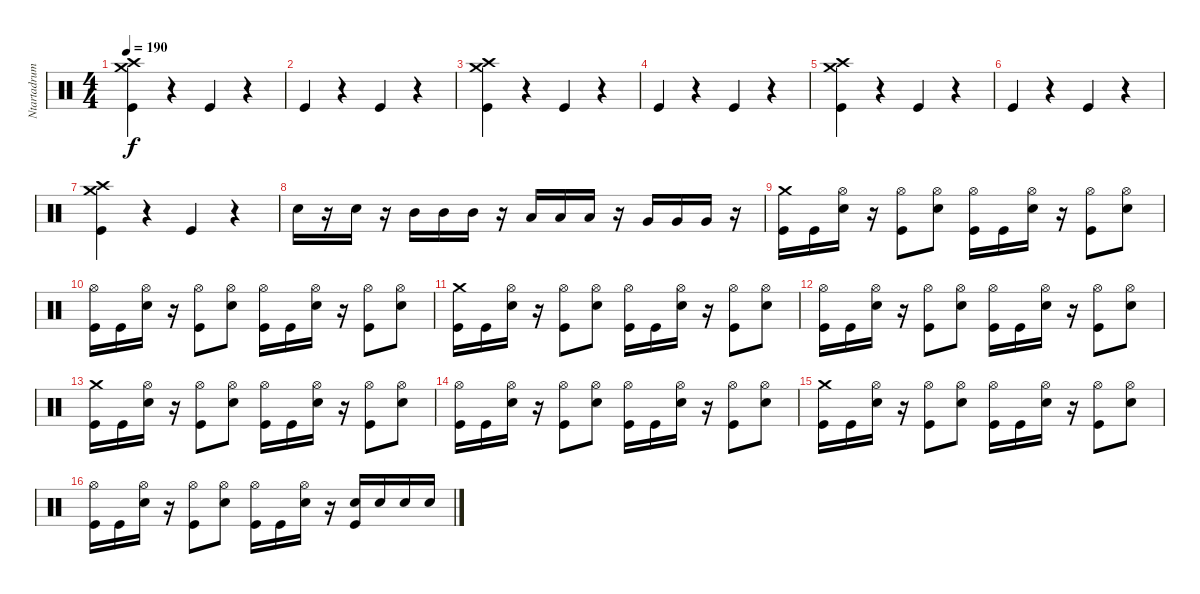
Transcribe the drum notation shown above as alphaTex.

\track ("Ntartadrum" "Ntartadrum") {instrument percussion}
\staff {score}
\articulation defaults
\ts (4 4)
\tempo 190
\clef neutral
\ks c
("Kick (hit)" "Crash medium (hit)" "Crash high (hit)").4{dy f} r.4 "Kick (hit)".4 r.4 |
"Kick (hit)".4 r.4 "Kick (hit)".4 r.4 |
("Kick (hit)" "Crash medium (hit)" "Crash high (hit)").4 r.4 "Kick (hit)".4 r.4 |
"Kick (hit)".4 r.4 "Kick (hit)".4 r.4 |
("Kick (hit)" "Crash medium (hit)" "Crash high (hit)").4 r.4 "Kick (hit)".4 r.4 |
"Kick (hit)".4 r.4 "Kick (hit)".4 r.4 |
("Kick (hit)" "Crash medium (hit)" "Crash high (hit)").4 r.4 "Kick (hit)".4 r.4 |
"Electric Snare (hit)".16 r.16 "Electric Snare (hit)".16 r.16 "Mid Tom (hit)".16 "Mid Tom (hit)".16 "Mid Tom (hit)".16 r.16 "Low Tom (hit)".16 "Low Tom (hit)".16 "Low Tom (hit)".16 r.16 "Very Low Tom (hit)".16 "Very Low Tom (hit)".16 "Very Low Tom (hit)".16 r.16 |
("Kick (hit)" "Crash medium (hit)").16 "Kick (hit)".16 ("Electric Snare (hit)" "Hi-Hat (open)").16 r.16 ("Kick (hit)" "Hi-Hat (open)").8 ("Electric Snare (hit)" "Hi-Hat (open)").8 ("Kick (hit)" "Hi-Hat (open)").16 "Kick (hit)".16 ("Electric Snare (hit)" "Hi-Hat (open)").16 r.16 ("Kick (hit)" "Hi-Hat (open)").8 ("Electric Snare (hit)" "Hi-Hat (open)").8 |
("Kick (hit)" "Hi-Hat (open)").16 "Kick (hit)".16 ("Electric Snare (hit)" "Hi-Hat (open)").16 r.16 ("Kick (hit)" "Hi-Hat (open)").8 ("Electric Snare (hit)" "Hi-Hat (open)").8 ("Kick (hit)" "Hi-Hat (open)").16 "Kick (hit)".16 ("Electric Snare (hit)" "Hi-Hat (open)").16 r.16 ("Kick (hit)" "Hi-Hat (open)").8 ("Electric Snare (hit)" "Hi-Hat (open)").8 |
("Kick (hit)" "Crash medium (hit)").16 "Kick (hit)".16 ("Electric Snare (hit)" "Hi-Hat (open)").16 r.16 ("Kick (hit)" "Hi-Hat (open)").8 ("Electric Snare (hit)" "Hi-Hat (open)").8 ("Kick (hit)" "Hi-Hat (open)").16 "Kick (hit)".16 ("Electric Snare (hit)" "Hi-Hat (open)").16 r.16 ("Kick (hit)" "Hi-Hat (open)").8 ("Electric Snare (hit)" "Hi-Hat (open)").8 |
("Kick (hit)" "Hi-Hat (open)").16 "Kick (hit)".16 ("Electric Snare (hit)" "Hi-Hat (open)").16 r.16 ("Kick (hit)" "Hi-Hat (open)").8 ("Electric Snare (hit)" "Hi-Hat (open)").8 ("Kick (hit)" "Hi-Hat (open)").16 "Kick (hit)".16 ("Electric Snare (hit)" "Hi-Hat (open)").16 r.16 ("Kick (hit)" "Hi-Hat (open)").8 ("Electric Snare (hit)" "Hi-Hat (open)").8 |
("Kick (hit)" "Crash medium (hit)").16 "Kick (hit)".16 ("Electric Snare (hit)" "Hi-Hat (open)").16 r.16 ("Kick (hit)" "Hi-Hat (open)").8 ("Electric Snare (hit)" "Hi-Hat (open)").8 ("Kick (hit)" "Hi-Hat (open)").16 "Kick (hit)".16 ("Electric Snare (hit)" "Hi-Hat (open)").16 r.16 ("Kick (hit)" "Hi-Hat (open)").8 ("Electric Snare (hit)" "Hi-Hat (open)").8 |
("Kick (hit)" "Hi-Hat (open)").16 "Kick (hit)".16 ("Electric Snare (hit)" "Hi-Hat (open)").16 r.16 ("Kick (hit)" "Hi-Hat (open)").8 ("Electric Snare (hit)" "Hi-Hat (open)").8 ("Kick (hit)" "Hi-Hat (open)").16 "Kick (hit)".16 ("Electric Snare (hit)" "Hi-Hat (open)").16 r.16 ("Kick (hit)" "Hi-Hat (open)").8 ("Electric Snare (hit)" "Hi-Hat (open)").8 |
("Kick (hit)" "Crash medium (hit)").16 "Kick (hit)".16 ("Electric Snare (hit)" "Hi-Hat (open)").16 r.16 ("Kick (hit)" "Hi-Hat (open)").8 ("Electric Snare (hit)" "Hi-Hat (open)").8 ("Kick (hit)" "Hi-Hat (open)").16 "Kick (hit)".16 ("Electric Snare (hit)" "Hi-Hat (open)").16 r.16 ("Kick (hit)" "Hi-Hat (open)").8 ("Electric Snare (hit)" "Hi-Hat (open)").8 |
("Kick (hit)" "Hi-Hat (open)").16 "Kick (hit)".16 ("Electric Snare (hit)" "Hi-Hat (open)").16 r.16 ("Kick (hit)" "Hi-Hat (open)").8 ("Electric Snare (hit)" "Hi-Hat (open)").8 ("Kick (hit)" "Hi-Hat (open)").16 "Kick (hit)".16 ("Electric Snare (hit)" "Hi-Hat (open)").16 r.16 ("Kick (hit)" "Electric Snare (hit)").16 "Electric Snare (hit)".16 "Electric Snare (hit)".16 "Electric Snare (hit)".16
